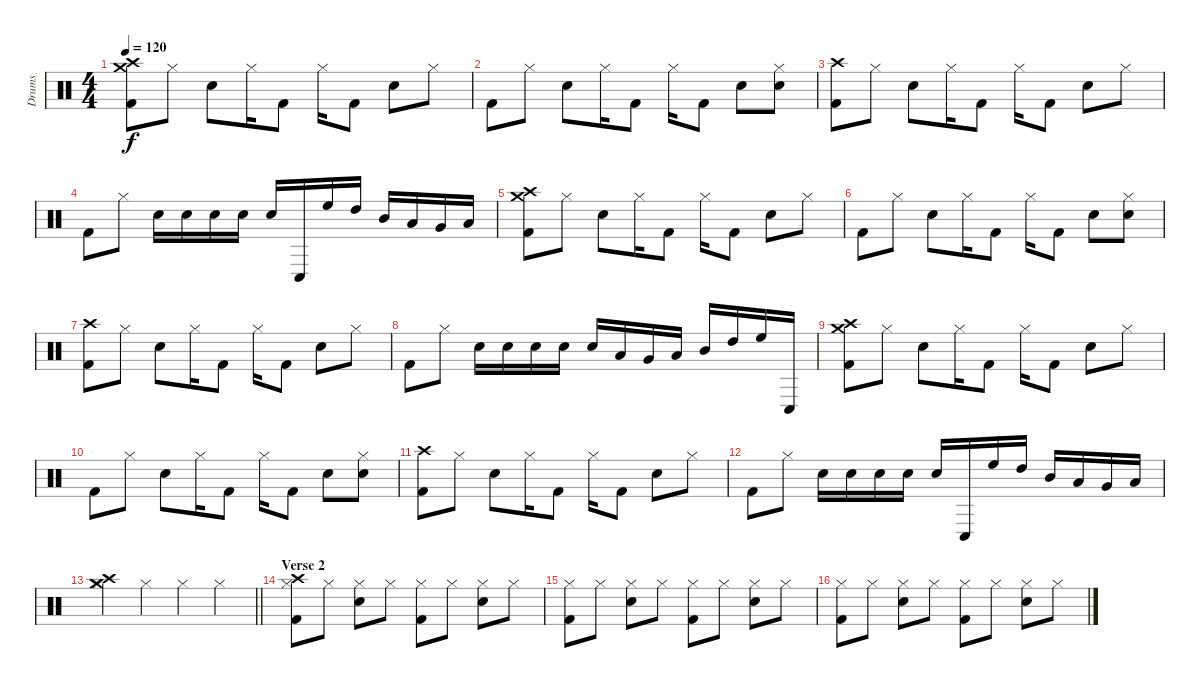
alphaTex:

\track ("Drums" "Drums") {instrument percussion}
\staff {score}
\articulation defaults
\ts (4 4)
\tempo 120
\clef neutral
\ks c
("Kick (hit) 2" "Crash medium (hit)" "Crash high (hit)").8{dy f} "Hi-Hat (closed)".8 "Snare (hit) 2".8 "Hi-Hat (closed)".16 "Kick (hit) 2".8 "Hi-Hat (closed)".16 "Kick (hit) 2".8 "Snare (hit) 2".8 "Hi-Hat (closed)".8 |
"Kick (hit) 2".8 "Hi-Hat (closed)".8 "Snare (hit) 2".8 "Hi-Hat (closed)".16 "Kick (hit) 2".8 "Hi-Hat (closed)".16 "Kick (hit) 2".8 "Snare (hit) 2".8 ("Snare (hit) 2" "Hi-Hat (closed)").8 |
("Kick (hit) 2" "Crash high (hit)").8 "Hi-Hat (closed)".8 "Snare (hit) 2".8 "Hi-Hat (closed)".16 "Kick (hit) 2".8 "Hi-Hat (closed)".16 "Kick (hit) 2".8 "Snare (hit) 2".8 "Hi-Hat (closed)".8 |
"Kick (hit) 2".8 "Hi-Hat (closed)".8 "Snare (hit) 2".16 "Snare (hit) 2".16 "Snare (hit) 2".16 "Snare (hit) 2".16 "Snare (hit) 2".16 "Conga low (hit)".16 "High Floor Tom (hit)".16 "High Tom (hit)".16 "Mid Tom (hit)".16 "Low Tom (hit)".16 "Very Low Tom (hit)".16 "Low Floor Tom (hit)".16 |
("Kick (hit) 2" "Crash medium (hit)" "Crash high (hit)").8 "Hi-Hat (closed)".8 "Snare (hit) 2".8 "Hi-Hat (closed)".16 "Kick (hit) 2".8 "Hi-Hat (closed)".16 "Kick (hit) 2".8 "Snare (hit) 2".8 "Hi-Hat (closed)".8 |
"Kick (hit) 2".8 "Hi-Hat (closed)".8 "Snare (hit) 2".8 "Hi-Hat (closed)".16 "Kick (hit) 2".8 "Hi-Hat (closed)".16 "Kick (hit) 2".8 "Snare (hit) 2".8 ("Snare (hit) 2" "Hi-Hat (closed)").8 |
("Kick (hit) 2" "Crash high (hit)").8 "Hi-Hat (closed)".8 "Snare (hit) 2".8 "Hi-Hat (closed)".16 "Kick (hit) 2".8 "Hi-Hat (closed)".16 "Kick (hit) 2".8 "Snare (hit) 2".8 "Hi-Hat (closed)".8 |
"Kick (hit) 2".8 "Hi-Hat (closed)".8 "Snare (hit) 2".16 "Snare (hit) 2".16 "Snare (hit) 2".16 "Snare (hit) 2".16 "Snare (hit) 2".16 "Low Floor Tom (hit)".16 "Very Low Tom (hit)".16 "Low Tom (hit)".16 "Mid Tom (hit)".16 "High Tom (hit)".16 "High Floor Tom (hit)".16 "Conga low (hit)".16 |
("Kick (hit) 2" "Crash medium (hit)" "Crash high (hit)").8 "Hi-Hat (closed)".8 "Snare (hit) 2".8 "Hi-Hat (closed)".16 "Kick (hit) 2".8 "Hi-Hat (closed)".16 "Kick (hit) 2".8 "Snare (hit) 2".8 "Hi-Hat (closed)".8 |
"Kick (hit) 2".8 "Hi-Hat (closed)".8 "Snare (hit) 2".8 "Hi-Hat (closed)".16 "Kick (hit) 2".8 "Hi-Hat (closed)".16 "Kick (hit) 2".8 "Snare (hit) 2".8 ("Snare (hit) 2" "Hi-Hat (closed)").8 |
("Kick (hit) 2" "Crash high (hit)").8 "Hi-Hat (closed)".8 "Snare (hit) 2".8 "Hi-Hat (closed)".16 "Kick (hit) 2".8 "Hi-Hat (closed)".16 "Kick (hit) 2".8 "Snare (hit) 2".8 "Hi-Hat (closed)".8 |
"Kick (hit) 2".8 "Hi-Hat (closed)".8 "Snare (hit) 2".16 "Snare (hit) 2".16 "Snare (hit) 2".16 "Snare (hit) 2".16 "Snare (hit) 2".16 "Conga low (hit)".16 "High Floor Tom (hit)".16 "High Tom (hit)".16 "Mid Tom (hit)".16 "Low Tom (hit)".16 "Very Low Tom (hit)".16 "Low Floor Tom (hit)".16 |
\barLineRight lightlight
("Hi-Hat (closed)" "Crash medium (hit)" "Crash high (hit)").4 "Hi-Hat (closed)".4 "Hi-Hat (closed)".4 "Hi-Hat (closed)".4 |
\section ("" "Verse 2")
("Kick (hit) 2" "Hi-Hat (closed)" "Crash high (hit)").8 "Hi-Hat (closed)".8 ("Snare (hit) 2" "Hi-Hat (closed)").8 "Hi-Hat (closed)".8 ("Kick (hit) 2" "Hi-Hat (closed)").8 "Hi-Hat (closed)".8 ("Snare (hit) 2" "Hi-Hat (closed)").8 "Hi-Hat (closed)".8 |
("Kick (hit) 2" "Hi-Hat (closed)").8 "Hi-Hat (closed)".8 ("Snare (hit) 2" "Hi-Hat (closed)").8 "Hi-Hat (closed)".8 ("Kick (hit) 2" "Hi-Hat (closed)").8 "Hi-Hat (closed)".8 ("Snare (hit) 2" "Hi-Hat (closed)").8 "Hi-Hat (closed)".8 |
("Kick (hit) 2" "Hi-Hat (closed)").8 "Hi-Hat (closed)".8 ("Snare (hit) 2" "Hi-Hat (closed)").8 "Hi-Hat (closed)".8 ("Kick (hit) 2" "Hi-Hat (closed)").8 "Hi-Hat (closed)".8 ("Snare (hit) 2" "Hi-Hat (closed)").8 "Hi-Hat (closed)".8
